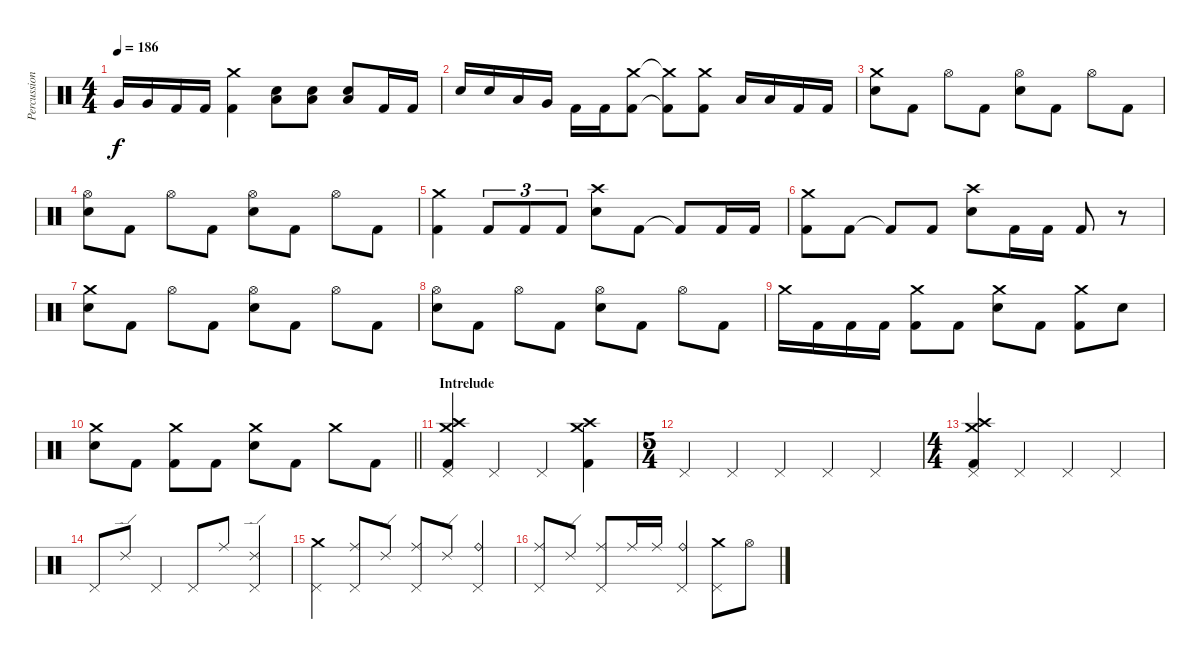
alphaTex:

\track ("Percussion" "Percussion") {instrument percussion}
\staff {score}
\articulation defaults
\ts (4 4)
\tempo 186
\clef neutral
\ks c "Very Low Tom (hit)".16{dy f} "Very Low Tom (hit)".16 "Kick (hit) 2".16 "Kick (hit) 2".16
("Crash medium (hit)" "Kick (hit) 2").4 ("Low Tom (hit)" "Electric Snare (hit)").8 ("Low Tom (hit)" "Electric Snare (hit)").8 ("Low Tom (hit)" "Electric Snare (hit)").8 "Kick (hit) 2".16 "Kick (hit) 2".16 |
"Electric Snare (hit)".16 "Electric Snare (hit)".16 "Low Tom (hit)".16 "Very Low Tom (hit)".16 "Kick (hit) 2".16 "Kick (hit) 2".16 ("Crash medium (hit)" "Kick (hit) 2").8 ("Crash medium (hit)"{t} "Kick (hit) 2"{t}).8 ("Crash medium (hit)" "Kick (hit) 2").8 "Low Tom (hit)".16 "Low Tom (hit)".16 "Kick (hit) 2".16 "Kick (hit) 2".16 |
("Crash medium (hit)" "Electric Snare (hit)").8 "Kick (hit) 2".8 "Hi-Hat (open)".8 "Kick (hit) 2".8 ("Hi-Hat (open)" "Electric Snare (hit)").8 "Kick (hit) 2".8 "Hi-Hat (open)".8 "Kick (hit) 2".8 |
("Hi-Hat (open)" "Electric Snare (hit)").8 "Kick (hit) 2".8 "Hi-Hat (open)".8 "Kick (hit) 2".8 ("Hi-Hat (open)" "Electric Snare (hit)").8 "Kick (hit) 2".8 "Hi-Hat (open)".8 "Kick (hit) 2".8 |
("Crash medium (hit)" "Kick (hit) 2").4 "Kick (hit) 2".8{tu (3 2)} "Kick (hit) 2".8{tu (3 2)} "Kick (hit) 2".8{tu (3 2)} ("Crash high (hit)" "Electric Snare (hit)").8 "Kick (hit) 2".8 "Kick (hit) 2"{t}.8 "Kick (hit) 2".16 "Kick (hit) 2".16 |
("Crash medium (hit)" "Kick (hit) 2").8 "Kick (hit) 2".8 "Kick (hit) 2"{t}.8 "Kick (hit) 2".8 ("Crash high (hit)" "Electric Snare (hit)").8 "Kick (hit) 2".16 "Kick (hit) 2".16 "Kick (hit) 2".8 r.8 |
("Crash medium (hit)" "Electric Snare (hit)").8 "Kick (hit) 2".8 "Hi-Hat (open)".8 "Kick (hit) 2".8 ("Hi-Hat (open)" "Electric Snare (hit)").8 "Kick (hit) 2".8 "Hi-Hat (open)".8 "Kick (hit) 2".8 |
("Hi-Hat (open)" "Electric Snare (hit)").8 "Kick (hit) 2".8 "Hi-Hat (open)".8 "Kick (hit) 2".8 ("Hi-Hat (open)" "Electric Snare (hit)").8 "Kick (hit) 2".8 "Hi-Hat (open)".8 "Kick (hit) 2".8 |
"Crash medium (hit)".16 "Kick (hit) 2".16 "Kick (hit) 2".16 "Kick (hit) 2".16 ("Crash medium (hit)" "Kick (hit) 2").8 "Kick (hit) 2".8 ("Crash medium (hit)" "Electric Snare (hit)").8 "Kick (hit) 2".8 ("Crash medium (hit)" "Kick (hit) 2").8 "Electric Snare (hit)".8 |
\barLineRight lightlight
("Crash medium (hit)" "Electric Snare (hit)").8 "Kick (hit) 2".8 ("Crash medium (hit)" "Kick (hit) 2").8 "Kick (hit) 2".8 ("Crash medium (hit)" "Electric Snare (hit)").8 "Kick (hit) 2".8 "Crash medium (hit)".8 "Kick (hit) 2".8 |
\section ("" "Intrelude")
("Crash medium (hit)" "Crash high (hit)" "Pedal Hi-Hat (hit)" "Kick (hit) 2").4 "Pedal Hi-Hat (hit)".4 "Pedal Hi-Hat (hit)".4 ("Crash medium (hit)" "Crash high (hit)" "Kick (hit) 2").4 |
\ts (5 4)
"Pedal Hi-Hat (hit)".4 "Pedal Hi-Hat (hit)".4 "Pedal Hi-Hat (hit)".4 "Pedal Hi-Hat (hit)".4 "Pedal Hi-Hat (hit)".4 |
\ts (4 4)
("Crash medium (hit)" "Crash high (hit)" "Pedal Hi-Hat (hit)" "Kick (hit) 2").4 "Pedal Hi-Hat (hit)".4 "Pedal Hi-Hat (hit)".4 "Pedal Hi-Hat (hit)".4 |
"Pedal Hi-Hat (hit)".8 "Ride (edge) 2".8 "Pedal Hi-Hat (hit)".4 "Pedal Hi-Hat (hit)".8 "Ride (middle)".8 ("Ride (edge) 2" "Pedal Hi-Hat (hit)").4 |
("Crash medium (hit)" "Pedal Hi-Hat (hit)").4 ("Ride (middle)" "Pedal Hi-Hat (hit)").8 "Ride (edge) 2".8 ("Ride (middle)" "Pedal Hi-Hat (hit)").8 "Ride (edge) 2".8 ("Ride (bell)" "Pedal Hi-Hat (hit)").4 |
("Ride (middle)" "Pedal Hi-Hat (hit)").8 "Ride (edge) 2".8 ("Ride (middle)" "Pedal Hi-Hat (hit)").8 "Ride (middle)".16 "Ride (middle)".16 ("Ride (bell)" "Pedal Hi-Hat (hit)").4 ("Crash medium (hit)" "Pedal Hi-Hat (hit)").8 "Hi-Hat (open)".8
